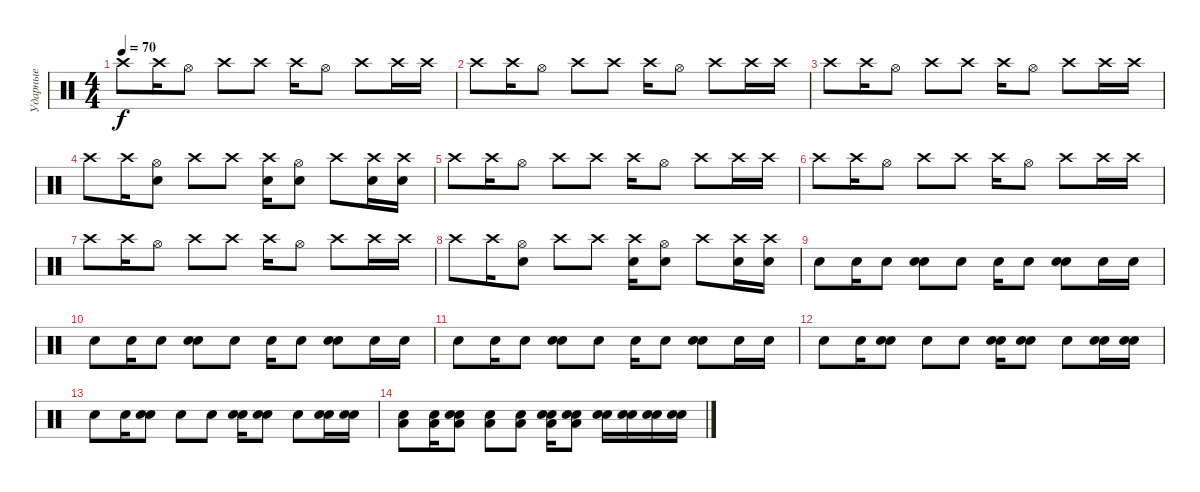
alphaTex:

\track ("Ударные" "Ударные") {instrument percussion}
\staff {score}
\articulation defaults
\ts (4 4)
\tempo 70
\clef neutral
\ks c "Crash high (hit)".8{dy f} "Crash high (hit)".16 "Hi-Hat (open)".8 "Crash high (hit)".8 "Crash high (hit)".8 "Crash high (hit)".16 "Hi-Hat (open)".8 "Crash high (hit)".8 "Crash high (hit)".16 "Crash high (hit)".16
|
"Crash high (hit)".8 "Crash high (hit)".16 "Hi-Hat (open)".8 "Crash high (hit)".8 "Crash high (hit)".8 "Crash high (hit)".16 "Hi-Hat (open)".8 "Crash high (hit)".8 "Crash high (hit)".16 "Crash high (hit)".16 |
"Crash high (hit)".8 "Crash high (hit)".16 "Hi-Hat (open)".8 "Crash high (hit)".8 "Crash high (hit)".8 "Crash high (hit)".16 "Hi-Hat (open)".8 "Crash high (hit)".8 "Crash high (hit)".16 "Crash high (hit)".16 |
"Crash high (hit)".8 "Crash high (hit)".16 ("Electric Snare (hit)" "Hi-Hat (open)").8 "Crash high (hit)".8 "Crash high (hit)".8 ("Electric Snare (hit)" "Crash high (hit)").16 ("Electric Snare (hit)" "Hi-Hat (open)").8 "Crash high (hit)".8 ("Electric Snare (hit)" "Crash high (hit)").16 ("Electric Snare (hit)" "Crash high (hit)").16 |
"Crash high (hit)".8 "Crash high (hit)".16 "Hi-Hat (open)".8 "Crash high (hit)".8 "Crash high (hit)".8 "Crash high (hit)".16 "Hi-Hat (open)".8 "Crash high (hit)".8 "Crash high (hit)".16 "Crash high (hit)".16 |
"Crash high (hit)".8 "Crash high (hit)".16 "Hi-Hat (open)".8 "Crash high (hit)".8 "Crash high (hit)".8 "Crash high (hit)".16 "Hi-Hat (open)".8 "Crash high (hit)".8 "Crash high (hit)".16 "Crash high (hit)".16 |
"Crash high (hit)".8 "Crash high (hit)".16 "Hi-Hat (open)".8 "Crash high (hit)".8 "Crash high (hit)".8 "Crash high (hit)".16 "Hi-Hat (open)".8 "Crash high (hit)".8 "Crash high (hit)".16 "Crash high (hit)".16 |
"Crash high (hit)".8 "Crash high (hit)".16 ("Electric Snare (hit)" "Hi-Hat (open)").8 "Crash high (hit)".8 "Crash high (hit)".8 ("Electric Snare (hit)" "Crash high (hit)").16 ("Electric Snare (hit)" "Hi-Hat (open)").8 "Crash high (hit)".8 ("Electric Snare (hit)" "Crash high (hit)").16 ("Electric Snare (hit)" "Crash high (hit)").16 |
"Electric Snare (hit)".8 "Electric Snare (hit)".16 "Electric Snare (hit)".8 ("Electric Snare (hit)" "Electric Snare (hit)").8 "Electric Snare (hit)".8 "Electric Snare (hit)".16 "Electric Snare (hit)".8 ("Electric Snare (hit)" "Electric Snare (hit)").8 "Electric Snare (hit)".16 "Electric Snare (hit)".16 |
"Electric Snare (hit)".8 "Electric Snare (hit)".16 "Electric Snare (hit)".8 ("Electric Snare (hit)" "Electric Snare (hit)").8 "Electric Snare (hit)".8 "Electric Snare (hit)".16 "Electric Snare (hit)".8 ("Electric Snare (hit)" "Electric Snare (hit)").8 "Electric Snare (hit)".16 "Electric Snare (hit)".16 |
"Electric Snare (hit)".8 "Electric Snare (hit)".16 "Electric Snare (hit)".8 ("Electric Snare (hit)" "Electric Snare (hit)").8 "Electric Snare (hit)".8 "Electric Snare (hit)".16 "Electric Snare (hit)".8 ("Electric Snare (hit)" "Electric Snare (hit)").8 "Electric Snare (hit)".16 "Electric Snare (hit)".16 |
"Electric Snare (hit)".8 "Electric Snare (hit)".16 ("Electric Snare (hit)" "Electric Snare (hit)").8 "Electric Snare (hit)".8 "Electric Snare (hit)".8 ("Electric Snare (hit)" "Electric Snare (hit)").16 ("Electric Snare (hit)" "Electric Snare (hit)").8 "Electric Snare (hit)".8 ("Electric Snare (hit)" "Electric Snare (hit)").16 ("Electric Snare (hit)" "Electric Snare (hit)").16 |
"Electric Snare (hit)".8 "Electric Snare (hit)".16 ("Electric Snare (hit)" "Electric Snare (hit)").8 "Electric Snare (hit)".8 "Electric Snare (hit)".8 ("Electric Snare (hit)" "Electric Snare (hit)").16 ("Electric Snare (hit)" "Electric Snare (hit)").8 "Electric Snare (hit)".8 ("Electric Snare (hit)" "Electric Snare (hit)").16 ("Electric Snare (hit)" "Electric Snare (hit)").16 |
("Low Floor Tom (hit)" "Electric Snare (hit)").8 ("Low Floor Tom (hit)" "Electric Snare (hit)").16 ("Low Floor Tom (hit)" "Electric Snare (hit)" "Electric Snare (hit)").8 ("Low Floor Tom (hit)" "Electric Snare (hit)").8 ("Low Floor Tom (hit)" "Electric Snare (hit)").8 ("Low Floor Tom (hit)" "Electric Snare (hit)" "Electric Snare (hit)").16 ("Low Floor Tom (hit)" "Electric Snare (hit)" "Electric Snare (hit)").8 ("Electric Snare (hit)" "Electric Snare (hit)").16 ("Electric Snare (hit)" "Electric Snare (hit)").16 ("Electric Snare (hit)" "Electric Snare (hit)").16 ("Electric Snare (hit)" "Electric Snare (hit)").16
